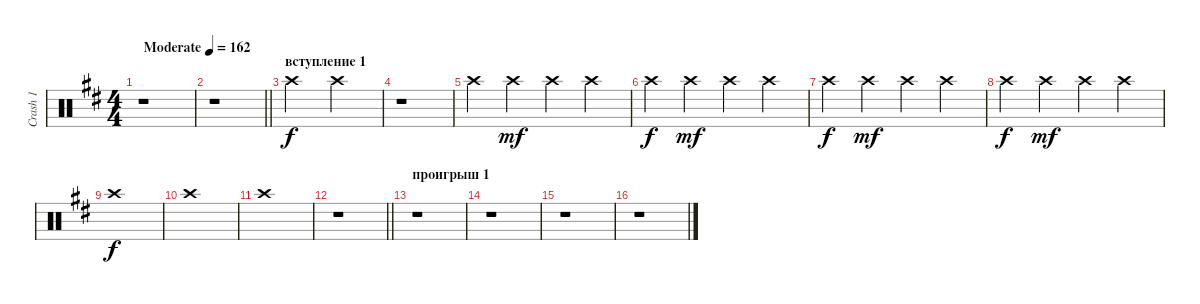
\track ("Crash 1" "Crash 1") {instrument percussion}
\staff {score}
\articulation defaults
\ts (4 4)
\tempo (162 "Moderate")
\clef neutral
\ks bminor
r.1{dy f} |
\barLineRight lightlight
r.1 |
\section ("" "вступление 1")
"Crash high (hit)".2 "Crash high (hit)".2 |
r.1 |
"Crash high (hit)".4 "Crash high (hit)".4{dy mf} "Crash high (hit)".4 "Crash high (hit)".4 |
"Crash high (hit)".4{dy f} "Crash high (hit)".4{dy mf} "Crash high (hit)".4 "Crash high (hit)".4 |
"Crash high (hit)".4{dy f} "Crash high (hit)".4{dy mf} "Crash high (hit)".4 "Crash high (hit)".4 |
"Crash high (hit)".4{dy f} "Crash high (hit)".4{dy mf} "Crash high (hit)".4 "Crash high (hit)".4 |
"Crash high (hit)".1{dy f} |
"Crash high (hit)".1 |
"Crash high (hit)".1 |
\barLineRight lightlight
r.1 |
\section ("" "проигрыш 1")
r.1 |
r.1 |
r.1 |
r.1
